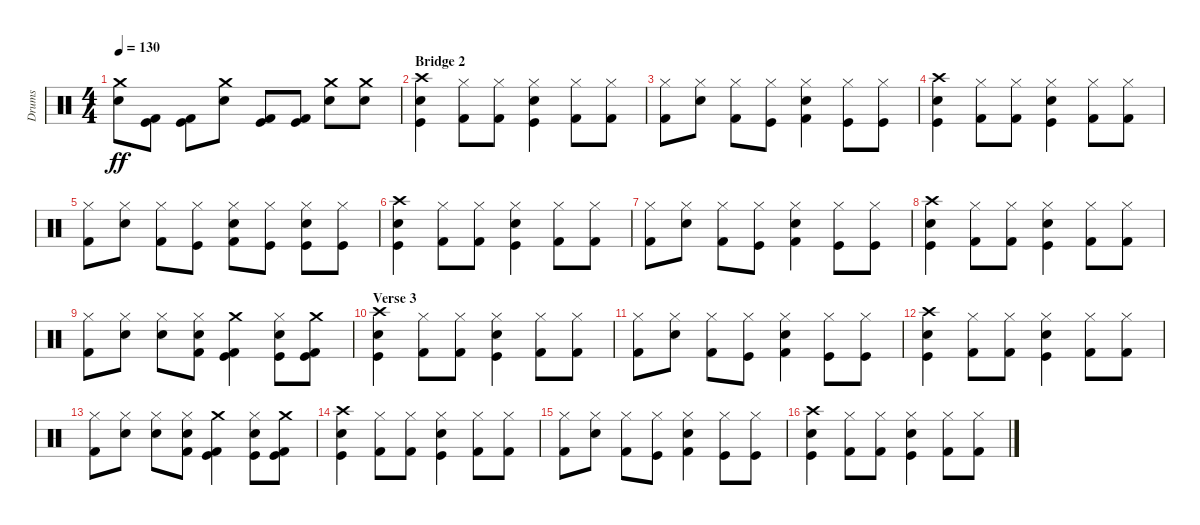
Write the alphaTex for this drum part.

\track ("Drums" "Drums") {instrument percussion}
\staff {score}
\articulation defaults
\ts (4 4)
\tempo 130
\clef neutral
\ks c
("Crash medium (hit)" "Snare (hit) 2").8{dy ff} ("Kick (hit) 2" "Kick (hit)").8 ("Kick (hit) 2" "Kick (hit)").8 ("Crash medium (hit)" "Snare (hit) 2").8 ("Kick (hit) 2" "Kick (hit)").8 ("Kick (hit) 2" "Kick (hit)").8 ("Crash medium (hit)" "Snare (hit) 2").8 ("Crash medium (hit)" "Snare (hit) 2").8 |
\section ("" "Bridge 2")
("Crash high (hit)" "Snare (hit) 2" "Kick (hit)").4 ("Hi-Hat (closed)" "Kick (hit) 2").8 ("Hi-Hat (closed)" "Kick (hit) 2").8 ("Hi-Hat (closed)" "Snare (hit) 2" "Kick (hit)").4 ("Hi-Hat (closed)" "Kick (hit) 2").8 ("Hi-Hat (closed)" "Kick (hit) 2").8 |
("Hi-Hat (closed)" "Kick (hit) 2").8 ("Hi-Hat (closed)" "Snare (hit) 2").8 ("Hi-Hat (closed)" "Kick (hit) 2").8 ("Hi-Hat (closed)" "Kick (hit)").8 ("Hi-Hat (closed)" "Kick (hit) 2" "Snare (hit) 2").4 ("Hi-Hat (closed)" "Kick (hit)").8 ("Hi-Hat (closed)" "Kick (hit)").8 |
("Crash high (hit)" "Snare (hit) 2" "Kick (hit)").4 ("Hi-Hat (closed)" "Kick (hit) 2").8 ("Hi-Hat (closed)" "Kick (hit) 2").8 ("Hi-Hat (closed)" "Snare (hit) 2" "Kick (hit)").4 ("Hi-Hat (closed)" "Kick (hit) 2").8 ("Hi-Hat (closed)" "Kick (hit) 2").8 |
("Hi-Hat (closed)" "Kick (hit) 2").8 ("Hi-Hat (closed)" "Snare (hit) 2").8 ("Hi-Hat (closed)" "Kick (hit) 2").8 ("Hi-Hat (closed)" "Kick (hit)").8 ("Hi-Hat (closed)" "Kick (hit) 2" "Snare (hit) 2").8 ("Hi-Hat (closed)" "Kick (hit)").8 ("Hi-Hat (closed)" "Kick (hit)" "Snare (hit) 2").8 ("Hi-Hat (closed)" "Kick (hit)").8 |
("Crash high (hit)" "Snare (hit) 2" "Kick (hit)").4 ("Hi-Hat (closed)" "Kick (hit) 2").8 ("Hi-Hat (closed)" "Kick (hit) 2").8 ("Hi-Hat (closed)" "Snare (hit) 2" "Kick (hit)").4 ("Hi-Hat (closed)" "Kick (hit) 2").8 ("Hi-Hat (closed)" "Kick (hit) 2").8 |
("Hi-Hat (closed)" "Kick (hit) 2").8 ("Hi-Hat (closed)" "Snare (hit) 2").8 ("Hi-Hat (closed)" "Kick (hit) 2").8 ("Hi-Hat (closed)" "Kick (hit)").8 ("Hi-Hat (closed)" "Kick (hit) 2" "Snare (hit) 2").4 ("Hi-Hat (closed)" "Kick (hit)").8 ("Hi-Hat (closed)" "Kick (hit)").8 |
("Crash high (hit)" "Snare (hit) 2" "Kick (hit)").4 ("Hi-Hat (closed)" "Kick (hit) 2").8 ("Hi-Hat (closed)" "Kick (hit) 2").8 ("Hi-Hat (closed)" "Snare (hit) 2" "Kick (hit)").4 ("Hi-Hat (closed)" "Kick (hit) 2").8 ("Hi-Hat (closed)" "Kick (hit) 2").8 |
("Hi-Hat (closed)" "Kick (hit) 2").8 ("Hi-Hat (closed)" "Snare (hit) 2").8 ("Hi-Hat (closed)" "Snare (hit) 2").8 ("Hi-Hat (closed)" "Kick (hit) 2" "Snare (hit) 2").8 ("Crash medium (hit)" "Kick (hit)" "Kick (hit) 2").4 ("Hi-Hat (closed)" "Kick (hit)" "Snare (hit) 2").8 ("Crash medium (hit)" "Kick (hit)" "Kick (hit) 2").8 |
\section ("" "Verse 3")
("Crash high (hit)" "Snare (hit) 2" "Kick (hit)").4 ("Hi-Hat (closed)" "Kick (hit) 2").8 ("Hi-Hat (closed)" "Kick (hit) 2").8 ("Hi-Hat (closed)" "Snare (hit) 2" "Kick (hit)").4 ("Hi-Hat (closed)" "Kick (hit) 2").8 ("Hi-Hat (closed)" "Kick (hit) 2").8 |
("Hi-Hat (closed)" "Kick (hit) 2").8 ("Hi-Hat (closed)" "Snare (hit) 2").8 ("Hi-Hat (closed)" "Kick (hit) 2").8 ("Hi-Hat (closed)" "Kick (hit)").8 ("Hi-Hat (closed)" "Kick (hit) 2" "Snare (hit) 2").4 ("Hi-Hat (closed)" "Kick (hit)").8 ("Hi-Hat (closed)" "Kick (hit)").8 |
("Crash high (hit)" "Snare (hit) 2" "Kick (hit)").4 ("Hi-Hat (closed)" "Kick (hit) 2").8 ("Hi-Hat (closed)" "Kick (hit) 2").8 ("Hi-Hat (closed)" "Snare (hit) 2" "Kick (hit)").4 ("Hi-Hat (closed)" "Kick (hit) 2").8 ("Hi-Hat (closed)" "Kick (hit) 2").8 |
("Hi-Hat (closed)" "Kick (hit) 2").8 ("Hi-Hat (closed)" "Snare (hit) 2").8 ("Hi-Hat (closed)" "Snare (hit) 2").8 ("Hi-Hat (closed)" "Kick (hit) 2" "Snare (hit) 2").8 ("Crash medium (hit)" "Kick (hit)" "Kick (hit) 2").4 ("Hi-Hat (closed)" "Kick (hit)" "Snare (hit) 2").8 ("Crash medium (hit)" "Kick (hit)" "Kick (hit) 2").8 |
("Crash high (hit)" "Snare (hit) 2" "Kick (hit)").4 ("Hi-Hat (closed)" "Kick (hit) 2").8 ("Hi-Hat (closed)" "Kick (hit) 2").8 ("Hi-Hat (closed)" "Snare (hit) 2" "Kick (hit)").4 ("Hi-Hat (closed)" "Kick (hit) 2").8 ("Hi-Hat (closed)" "Kick (hit) 2").8 |
("Hi-Hat (closed)" "Kick (hit) 2").8 ("Hi-Hat (closed)" "Snare (hit) 2").8 ("Hi-Hat (closed)" "Kick (hit) 2").8 ("Hi-Hat (closed)" "Kick (hit)").8 ("Hi-Hat (closed)" "Kick (hit) 2" "Snare (hit) 2").4 ("Hi-Hat (closed)" "Kick (hit)").8 ("Hi-Hat (closed)" "Kick (hit)").8 |
("Crash high (hit)" "Snare (hit) 2" "Kick (hit)").4 ("Hi-Hat (closed)" "Kick (hit) 2").8 ("Hi-Hat (closed)" "Kick (hit) 2").8 ("Hi-Hat (closed)" "Snare (hit) 2" "Kick (hit)").4 ("Hi-Hat (closed)" "Kick (hit) 2").8 ("Hi-Hat (closed)" "Kick (hit) 2").8
